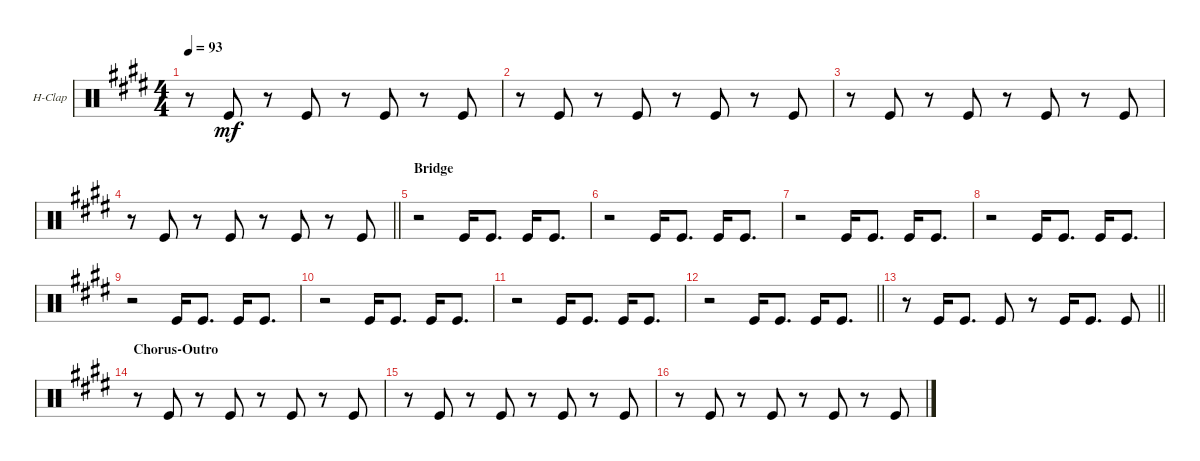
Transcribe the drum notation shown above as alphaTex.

\defaultSystemsLayout 4
\bracketExtendMode groupsimilarinstruments
\firstSystemTrackNameOrientation horizontal
\otherSystemsTrackNameOrientation horizontal
\track ("Hand Clap" "H-Clap") {instrument percussion}
\staff {score}
\articulation defaults
\ts (4 4)
\tempo 93
\clef neutral
\ks e
r.8{dy mf} "Kick (hit)".8 r.8 "Kick (hit)".8 r.8 "Kick (hit)".8 r.8 "Kick (hit)".8 |
r.8 "Kick (hit)".8 r.8 "Kick (hit)".8 r.8 "Kick (hit)".8 r.8 "Kick (hit)".8 |
r.8 "Kick (hit)".8 r.8 "Kick (hit)".8 r.8 "Kick (hit)".8 r.8 "Kick (hit)".8 |
\barLineRight lightlight
r.8 "Kick (hit)".8 r.8 "Kick (hit)".8 r.8 "Kick (hit)".8 r.8 "Kick (hit)".8 |
\section ("" "Bridge")
r.2 "Kick (hit)".16 "Kick (hit)".8{d} "Kick (hit)".16 "Kick (hit)".8{d} |
r.2 "Kick (hit)".16 "Kick (hit)".8{d} "Kick (hit)".16 "Kick (hit)".8{d} |
r.2 "Kick (hit)".16 "Kick (hit)".8{d} "Kick (hit)".16 "Kick (hit)".8{d} |
r.2 "Kick (hit)".16 "Kick (hit)".8{d} "Kick (hit)".16 "Kick (hit)".8{d} |
r.2 "Kick (hit)".16 "Kick (hit)".8{d} "Kick (hit)".16 "Kick (hit)".8{d} |
r.2 "Kick (hit)".16 "Kick (hit)".8{d} "Kick (hit)".16 "Kick (hit)".8{d} |
r.2 "Kick (hit)".16 "Kick (hit)".8{d} "Kick (hit)".16 "Kick (hit)".8{d} |
\barLineRight lightlight
r.2 "Kick (hit)".16 "Kick (hit)".8{d} "Kick (hit)".16 "Kick (hit)".8{d} |
\barLineRight lightlight
r.8 "Kick (hit)".16 "Kick (hit)".8{d} "Kick (hit)".8 r.8 "Kick (hit)".16 "Kick (hit)".8{d} "Kick (hit)".8 |
\section ("" "Chorus-Outro")
r.8 "Kick (hit)".8 r.8 "Kick (hit)".8 r.8 "Kick (hit)".8 r.8 "Kick (hit)".8 |
r.8 "Kick (hit)".8 r.8 "Kick (hit)".8 r.8 "Kick (hit)".8 r.8 "Kick (hit)".8 |
r.8 "Kick (hit)".8 r.8 "Kick (hit)".8 r.8 "Kick (hit)".8 r.8 "Kick (hit)".8
